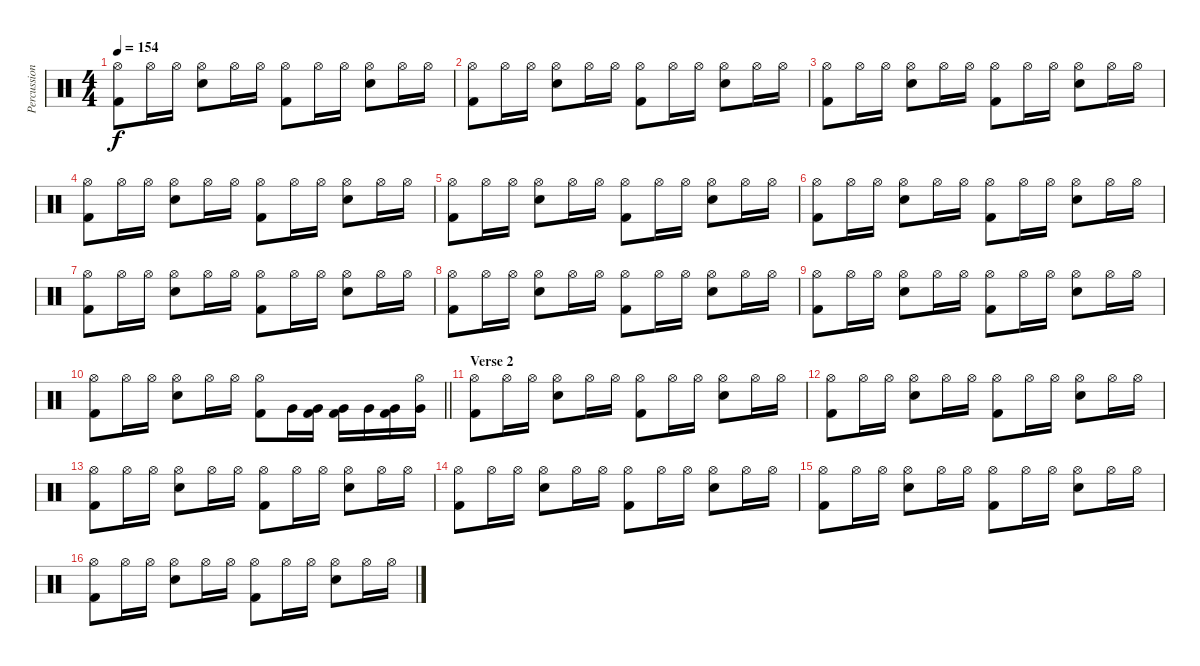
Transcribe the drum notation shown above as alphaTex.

\track ("Percussion" "Percussion") {instrument percussion}
\staff {score}
\articulation defaults
\ts (4 4)
\tempo 154
\clef neutral
\ks c
("Hi-Hat (open)" "Kick (hit) 2").8{dy f} "Hi-Hat (open)".16 "Hi-Hat (open)".16 ("Hi-Hat (open)" "Snare (hit) 2").8 "Hi-Hat (open)".16 "Hi-Hat (open)".16 ("Hi-Hat (open)" "Kick (hit) 2").8 "Hi-Hat (open)".16 "Hi-Hat (open)".16 ("Hi-Hat (open)" "Snare (hit) 2").8 "Hi-Hat (open)".16 "Hi-Hat (open)".16 |
("Hi-Hat (open)" "Kick (hit) 2").8 "Hi-Hat (open)".16 "Hi-Hat (open)".16 ("Hi-Hat (open)" "Snare (hit) 2").8 "Hi-Hat (open)".16 "Hi-Hat (open)".16 ("Hi-Hat (open)" "Kick (hit) 2").8 "Hi-Hat (open)".16 "Hi-Hat (open)".16 ("Hi-Hat (open)" "Snare (hit) 2").8 "Hi-Hat (open)".16 "Hi-Hat (open)".16 |
("Hi-Hat (open)" "Kick (hit) 2").8 "Hi-Hat (open)".16 "Hi-Hat (open)".16 ("Hi-Hat (open)" "Snare (hit) 2").8 "Hi-Hat (open)".16 "Hi-Hat (open)".16 ("Hi-Hat (open)" "Kick (hit) 2").8 "Hi-Hat (open)".16 "Hi-Hat (open)".16 ("Hi-Hat (open)" "Snare (hit) 2").8 "Hi-Hat (open)".16 "Hi-Hat (open)".16 |
("Hi-Hat (open)" "Kick (hit) 2").8 "Hi-Hat (open)".16 "Hi-Hat (open)".16 ("Hi-Hat (open)" "Snare (hit) 2").8 "Hi-Hat (open)".16 "Hi-Hat (open)".16 ("Hi-Hat (open)" "Kick (hit) 2").8 "Hi-Hat (open)".16 "Hi-Hat (open)".16 ("Hi-Hat (open)" "Snare (hit) 2").8 "Hi-Hat (open)".16 "Hi-Hat (open)".16 |
("Hi-Hat (open)" "Kick (hit) 2").8 "Hi-Hat (open)".16 "Hi-Hat (open)".16 ("Hi-Hat (open)" "Snare (hit) 2").8 "Hi-Hat (open)".16 "Hi-Hat (open)".16 ("Hi-Hat (open)" "Kick (hit) 2").8 "Hi-Hat (open)".16 "Hi-Hat (open)".16 ("Hi-Hat (open)" "Snare (hit) 2").8 "Hi-Hat (open)".16 "Hi-Hat (open)".16 |
("Hi-Hat (open)" "Kick (hit) 2").8 "Hi-Hat (open)".16 "Hi-Hat (open)".16 ("Hi-Hat (open)" "Snare (hit) 2").8 "Hi-Hat (open)".16 "Hi-Hat (open)".16 ("Hi-Hat (open)" "Kick (hit) 2").8 "Hi-Hat (open)".16 "Hi-Hat (open)".16 ("Hi-Hat (open)" "Snare (hit) 2").8 "Hi-Hat (open)".16 "Hi-Hat (open)".16 |
("Hi-Hat (open)" "Kick (hit) 2").8 "Hi-Hat (open)".16 "Hi-Hat (open)".16 ("Hi-Hat (open)" "Snare (hit) 2").8 "Hi-Hat (open)".16 "Hi-Hat (open)".16 ("Hi-Hat (open)" "Kick (hit) 2").8 "Hi-Hat (open)".16 "Hi-Hat (open)".16 ("Hi-Hat (open)" "Snare (hit) 2").8 "Hi-Hat (open)".16 "Hi-Hat (open)".16 |
("Hi-Hat (open)" "Kick (hit) 2").8 "Hi-Hat (open)".16 "Hi-Hat (open)".16 ("Hi-Hat (open)" "Snare (hit) 2").8 "Hi-Hat (open)".16 "Hi-Hat (open)".16 ("Hi-Hat (open)" "Kick (hit) 2").8 "Hi-Hat (open)".16 "Hi-Hat (open)".16 ("Hi-Hat (open)" "Snare (hit) 2").8 "Hi-Hat (open)".16 "Hi-Hat (open)".16 |
("Hi-Hat (open)" "Kick (hit) 2").8 "Hi-Hat (open)".16 "Hi-Hat (open)".16 ("Hi-Hat (open)" "Snare (hit) 2").8 "Hi-Hat (open)".16 "Hi-Hat (open)".16 ("Hi-Hat (open)" "Kick (hit) 2").8 "Hi-Hat (open)".16 "Hi-Hat (open)".16 ("Hi-Hat (open)" "Snare (hit) 2").8 "Hi-Hat (open)".16 "Hi-Hat (open)".16 |
\barLineRight lightlight
("Hi-Hat (open)" "Kick (hit) 2").8 "Hi-Hat (open)".16 "Hi-Hat (open)".16 ("Hi-Hat (open)" "Snare (hit) 2").8 "Hi-Hat (open)".16 "Hi-Hat (open)".16 ("Hi-Hat (open)" "Kick (hit) 2").8 "Very Low Tom (hit)".16 ("Kick (hit) 2" "Very Low Tom (hit)").16 ("Kick (hit) 2" "Very Low Tom (hit)").16 "Very Low Tom (hit)".16 ("Kick (hit) 2" "Very Low Tom (hit)").16 ("Hi-Hat (open)" "Very Low Tom (hit)").16 |
\section ("" "Verse 2")
("Hi-Hat (open)" "Kick (hit) 2").8 "Hi-Hat (open)".16 "Hi-Hat (open)".16 ("Hi-Hat (open)" "Snare (hit) 2").8 "Hi-Hat (open)".16 "Hi-Hat (open)".16 ("Hi-Hat (open)" "Kick (hit) 2").8 "Hi-Hat (open)".16 "Hi-Hat (open)".16 ("Hi-Hat (open)" "Snare (hit) 2").8 "Hi-Hat (open)".16 "Hi-Hat (open)".16 |
("Hi-Hat (open)" "Kick (hit) 2").8 "Hi-Hat (open)".16 "Hi-Hat (open)".16 ("Hi-Hat (open)" "Snare (hit) 2").8 "Hi-Hat (open)".16 "Hi-Hat (open)".16 ("Hi-Hat (open)" "Kick (hit) 2").8 "Hi-Hat (open)".16 "Hi-Hat (open)".16 ("Hi-Hat (open)" "Snare (hit) 2").8 "Hi-Hat (open)".16 "Hi-Hat (open)".16 |
("Hi-Hat (open)" "Kick (hit) 2").8 "Hi-Hat (open)".16 "Hi-Hat (open)".16 ("Hi-Hat (open)" "Snare (hit) 2").8 "Hi-Hat (open)".16 "Hi-Hat (open)".16 ("Hi-Hat (open)" "Kick (hit) 2").8 "Hi-Hat (open)".16 "Hi-Hat (open)".16 ("Hi-Hat (open)" "Snare (hit) 2").8 "Hi-Hat (open)".16 "Hi-Hat (open)".16 |
("Hi-Hat (open)" "Kick (hit) 2").8 "Hi-Hat (open)".16 "Hi-Hat (open)".16 ("Hi-Hat (open)" "Snare (hit) 2").8 "Hi-Hat (open)".16 "Hi-Hat (open)".16 ("Hi-Hat (open)" "Kick (hit) 2").8 "Hi-Hat (open)".16 "Hi-Hat (open)".16 ("Hi-Hat (open)" "Snare (hit) 2").8 "Hi-Hat (open)".16 "Hi-Hat (open)".16 |
("Hi-Hat (open)" "Kick (hit) 2").8 "Hi-Hat (open)".16 "Hi-Hat (open)".16 ("Hi-Hat (open)" "Snare (hit) 2").8 "Hi-Hat (open)".16 "Hi-Hat (open)".16 ("Hi-Hat (open)" "Kick (hit) 2").8 "Hi-Hat (open)".16 "Hi-Hat (open)".16 ("Hi-Hat (open)" "Snare (hit) 2").8 "Hi-Hat (open)".16 "Hi-Hat (open)".16 |
("Hi-Hat (open)" "Kick (hit) 2").8 "Hi-Hat (open)".16 "Hi-Hat (open)".16 ("Hi-Hat (open)" "Snare (hit) 2").8 "Hi-Hat (open)".16 "Hi-Hat (open)".16 ("Hi-Hat (open)" "Kick (hit) 2").8 "Hi-Hat (open)".16 "Hi-Hat (open)".16 ("Hi-Hat (open)" "Snare (hit) 2").8 "Hi-Hat (open)".16 "Hi-Hat (open)".16
